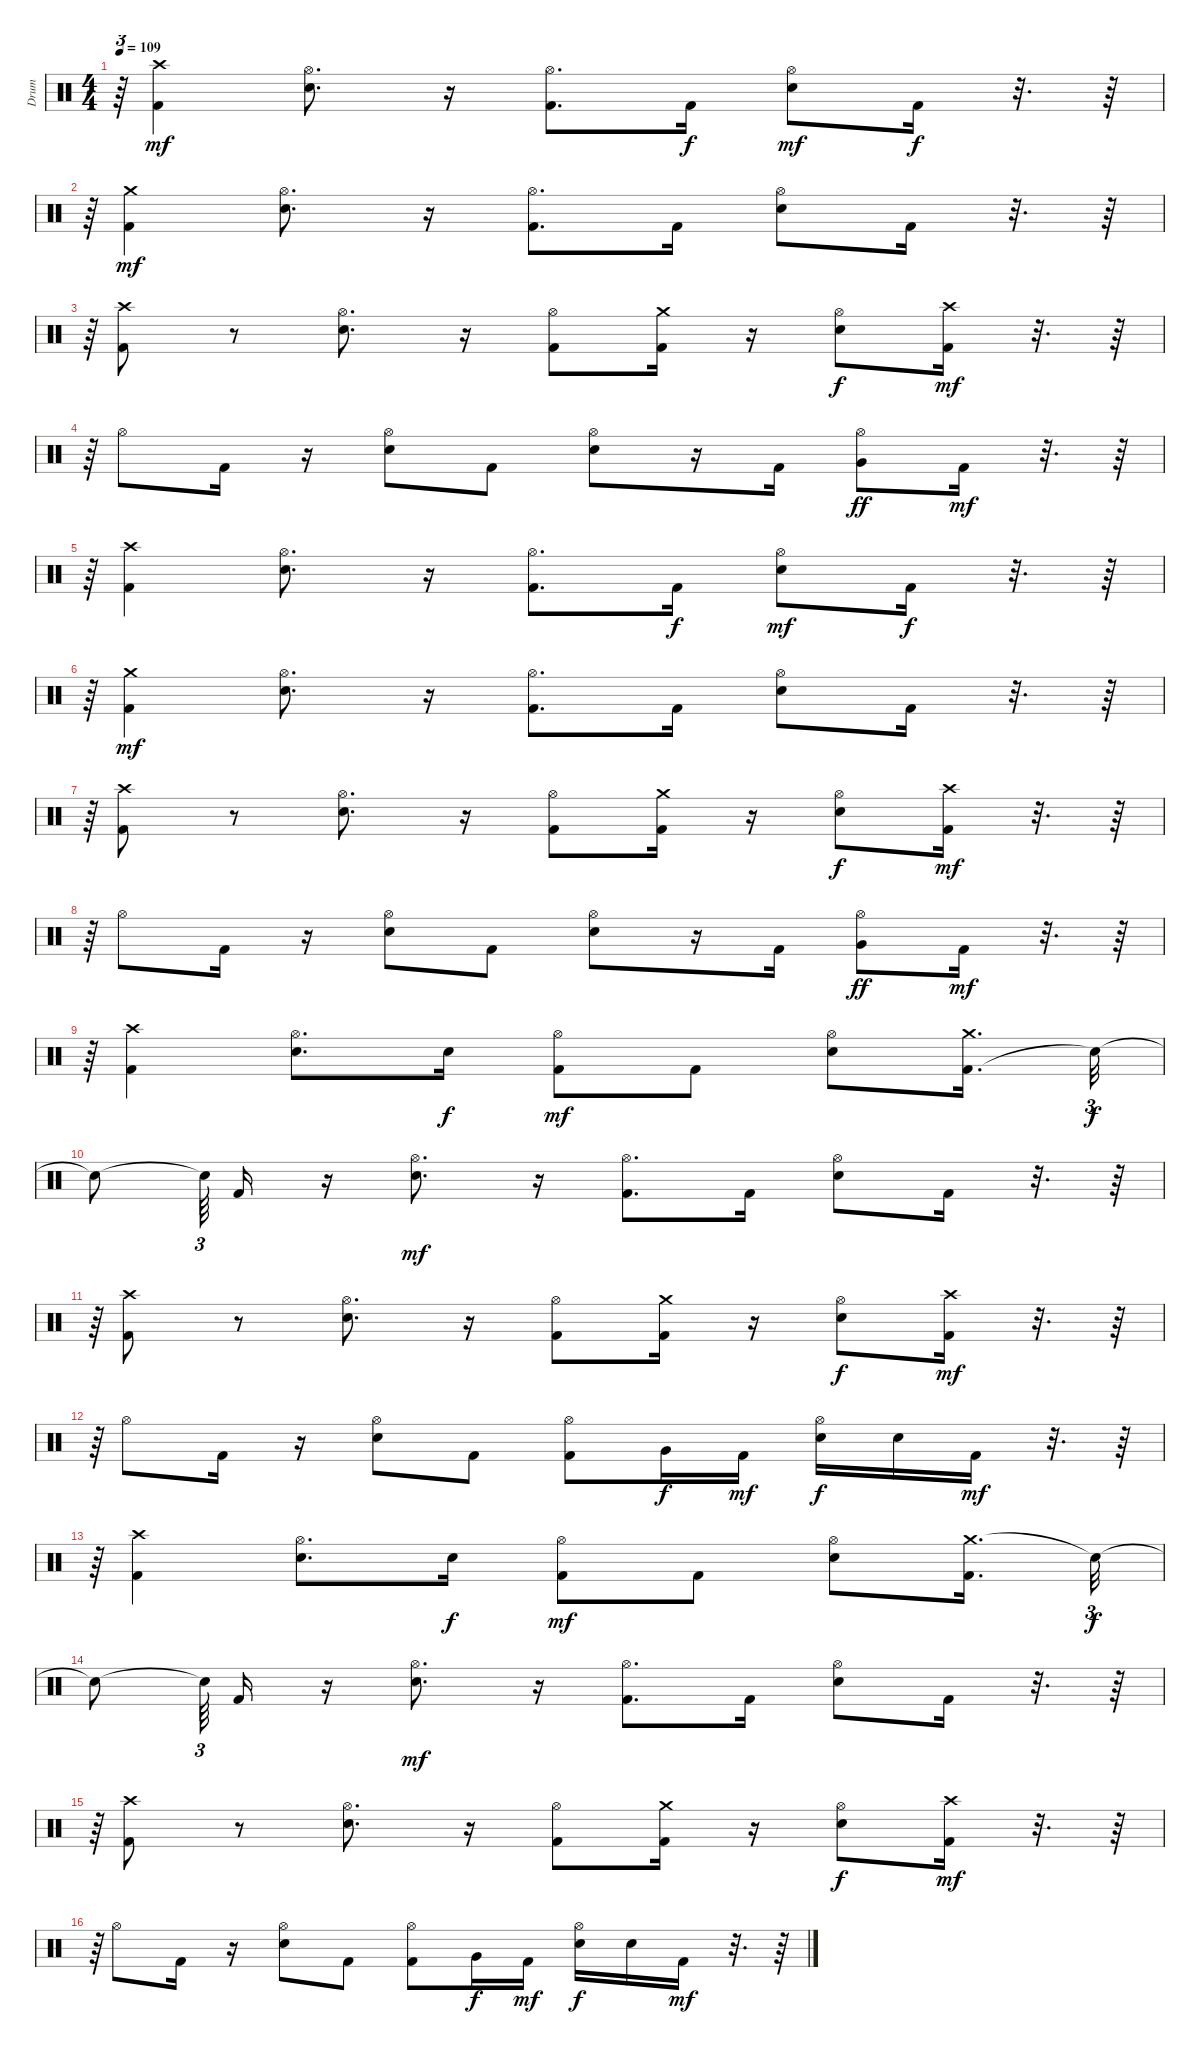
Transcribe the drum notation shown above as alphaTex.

\track ("Drum" "Drum") {instrument percussion}
\staff {score}
\articulation defaults
\ts (4 4)
\tempo 109
\clef neutral
\ks c
r.64{tu (3 2) dy f} ("Crash high (hit)" "Kick (hit) 2").4{dy mf} ("Electric Snare (hit)" "Hi-Hat (open)").8{d} r.16 ("Kick (hit) 2" "Hi-Hat (open)").8{d} "Kick (hit) 2".16{dy f} ("Electric Snare (hit)" "Hi-Hat (open)").8{dy mf} "Kick (hit) 2".16{dy f} r.32{d} r.64 |
r.64{tu (3 2)} ("Crash medium (hit)" "Kick (hit) 2").4{dy mf} ("Hi-Hat (open)" "Electric Snare (hit)").8{d} r.16 ("Kick (hit) 2" "Hi-Hat (open)").8{d} "Kick (hit) 2".16 ("Hi-Hat (open)" "Electric Snare (hit)").8 "Kick (hit) 2".16 r.32{d} r.64 |
r.64{tu (3 2)} ("Crash high (hit)" "Kick (hit) 2").8 r.8 ("Hi-Hat (open)" "Electric Snare (hit)").8{d} r.16 ("Hi-Hat (open)" "Kick (hit) 2").8 ("Crash medium (hit)" "Kick (hit) 2").16 r.16 ("Electric Snare (hit)" "Hi-Hat (open)").8{dy f} ("Crash high (hit)" "Kick (hit) 2").16{dy mf} r.32{d} r.64 |
r.64{tu (3 2)} "Hi-Hat (open)".8 "Kick (hit) 2".16 r.16 ("Electric Snare (hit)" "Hi-Hat (open)").8 "Kick (hit) 2".8 ("Hi-Hat (open)" "Electric Snare (hit)").8 r.16 "Kick (hit) 2".16 ("Very Low Tom (hit)" "Hi-Hat (open)").8{dy ff} "Kick (hit) 2".16{dy mf} r.32{d} r.64 |
r.64{tu (3 2)} ("Kick (hit) 2" "Crash high (hit)").4 ("Hi-Hat (open)" "Electric Snare (hit)").8{d} r.16 ("Hi-Hat (open)" "Kick (hit) 2").8{d} "Kick (hit) 2".16{dy f} ("Electric Snare (hit)" "Hi-Hat (open)").8{dy mf} "Kick (hit) 2".16{dy f} r.32{d} r.64 |
r.64{tu (3 2)} ("Crash medium (hit)" "Kick (hit) 2").4{dy mf} ("Electric Snare (hit)" "Hi-Hat (open)").8{d} r.16 ("Hi-Hat (open)" "Kick (hit) 2").8{d} "Kick (hit) 2".16 ("Hi-Hat (open)" "Electric Snare (hit)").8 "Kick (hit) 2".16 r.32{d} r.64 |
r.64{tu (3 2)} ("Crash high (hit)" "Kick (hit) 2").8 r.8 ("Electric Snare (hit)" "Hi-Hat (open)").8{d} r.16 ("Hi-Hat (open)" "Kick (hit) 2").8 ("Kick (hit) 2" "Crash medium (hit)").16 r.16 ("Hi-Hat (open)" "Electric Snare (hit)").8{dy f} ("Crash high (hit)" "Kick (hit) 2").16{dy mf} r.32{d} r.64 |
r.64{tu (3 2)} "Hi-Hat (open)".8 "Kick (hit) 2".16 r.16 ("Hi-Hat (open)" "Electric Snare (hit)").8 "Kick (hit) 2".8 ("Electric Snare (hit)" "Hi-Hat (open)").8 r.16 "Kick (hit) 2".16 ("Hi-Hat (open)" "Very Low Tom (hit)").8{dy ff} "Kick (hit) 2".16{dy mf} r.32{d} r.64 |
r.64{tu (3 2)} ("Kick (hit) 2" "Crash high (hit)").4 ("Electric Snare (hit)" "Hi-Hat (open)").8{d} "Electric Snare (hit)".16{dy f} ("Hi-Hat (open)" "Kick (hit) 2").8{dy mf} "Kick (hit) 2".8 ("Hi-Hat (open)" "Electric Snare (hit)").8 ("Kick (hit) 2" "Crash medium (hit)").16{d} "Snare (hit)"{t}.32{tu (3 2) dy f} |
"Snare (hit)"{t}.8 "Snare (hit)"{t}.64{tu (3 2) beam splitsecondary} "Kick (hit) 2".16 r.16 ("Hi-Hat (open)" "Electric Snare (hit)").8{d dy mf} r.16 ("Hi-Hat (open)" "Kick (hit) 2").8{d} "Kick (hit) 2".16 ("Hi-Hat (open)" "Electric Snare (hit)").8 "Kick (hit) 2".16 r.32{d} r.64 |
r.64{tu (3 2)} ("Kick (hit) 2" "Crash high (hit)").8 r.8 ("Electric Snare (hit)" "Hi-Hat (open)").8{d} r.16 ("Kick (hit) 2" "Hi-Hat (open)").8 ("Kick (hit) 2" "Crash medium (hit)").16 r.16 ("Hi-Hat (open)" "Electric Snare (hit)").8{dy f} ("Kick (hit) 2" "Crash high (hit)").16{dy mf} r.32{d} r.64 |
r.64{tu (3 2)} "Hi-Hat (open)".8 "Kick (hit) 2".16 r.16 ("Electric Snare (hit)" "Hi-Hat (open)").8 "Kick (hit) 2".8 ("Kick (hit) 2" "Hi-Hat (open)").8 "Very Low Tom (hit)".16{dy f} "Kick (hit) 2".16{dy mf} ("Hi-Hat (open)" "Electric Snare (hit)").16{dy f} "Electric Snare (hit)".16 "Kick (hit) 2".16{dy mf} r.32{d} r.64 |
r.64{tu (3 2)} ("Kick (hit) 2" "Crash high (hit)").4 ("Hi-Hat (open)" "Electric Snare (hit)").8{d} "Electric Snare (hit)".16{dy f} ("Kick (hit) 2" "Hi-Hat (open)").8{dy mf} "Kick (hit) 2".8 ("Hi-Hat (open)" "Electric Snare (hit)").8 ("Crash medium (hit)" "Kick (hit) 2").16{d} "Snare (hit)"{t}.32{tu (3 2) dy f} |
"Snare (hit)"{t}.8 "Snare (hit)"{t}.64{tu (3 2) beam splitsecondary} "Kick (hit) 2".16 r.16 ("Hi-Hat (open)" "Electric Snare (hit)").8{d dy mf} r.16 ("Kick (hit) 2" "Hi-Hat (open)").8{d} "Kick (hit) 2".16 ("Electric Snare (hit)" "Hi-Hat (open)").8 "Kick (hit) 2".16 r.32{d} r.64 |
r.64{tu (3 2)} ("Kick (hit) 2" "Crash high (hit)").8 r.8 ("Hi-Hat (open)" "Electric Snare (hit)").8{d} r.16 ("Kick (hit) 2" "Hi-Hat (open)").8 ("Kick (hit) 2" "Crash medium (hit)").16 r.16 ("Electric Snare (hit)" "Hi-Hat (open)").8{dy f} ("Crash high (hit)" "Kick (hit) 2").16{dy mf} r.32{d} r.64 |
r.64{tu (3 2)} "Hi-Hat (open)".8 "Kick (hit) 2".16 r.16 ("Hi-Hat (open)" "Electric Snare (hit)").8 "Kick (hit) 2".8 ("Kick (hit) 2" "Hi-Hat (open)").8 "Very Low Tom (hit)".16{dy f} "Kick (hit) 2".16{dy mf} ("Electric Snare (hit)" "Hi-Hat (open)").16{dy f} "Electric Snare (hit)".16 "Kick (hit) 2".16{dy mf} r.32{d} r.64
